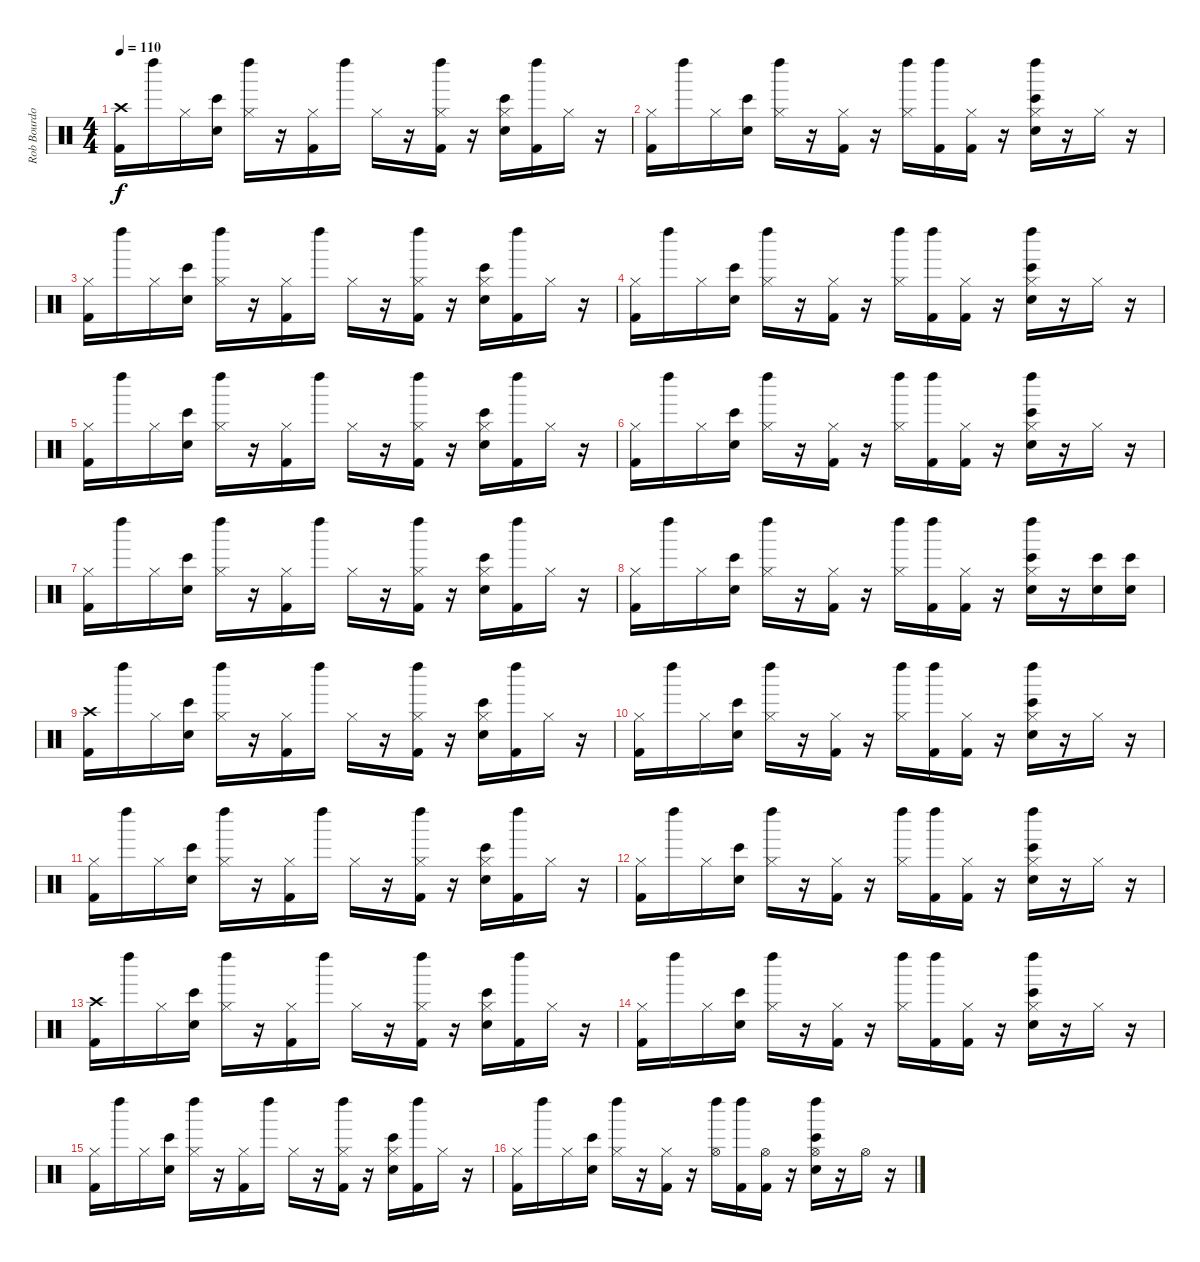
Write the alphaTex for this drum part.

\track ("Rob Bourdon (Drums)" "Rob Bourdo") {instrument percussion}
\staff {score}
\articulation defaults
\ts (4 4)
\tempo 110
\clef neutral
\ks c
("Crash high (hit)" "Kick (hit) 2").16{dy f} "Left Maraca (hit)".16 "Hi-Hat (closed)".16 ("Electric Snare (hit)" "Bongo High (hit)").16 ("Hi-Hat (closed)" "Left Maraca (hit)").16 r.16 ("Hi-Hat (closed)" "Kick (hit) 2").16 "Left Maraca (hit)".16 "Hi-Hat (closed)".16 r.16 ("Hi-Hat (closed)" "Left Maraca (hit)" "Kick (hit) 2").16 r.16 ("Hi-Hat (closed)" "Electric Snare (hit)" "Bongo High (hit)").16 ("Left Maraca (hit)" "Kick (hit) 2").16 "Hi-Hat (closed)".16 r.16 |
("Hi-Hat (closed)" "Kick (hit) 2").16 "Left Maraca (hit)".16 "Hi-Hat (closed)".16 ("Electric Snare (hit)" "Bongo High (hit)").16 ("Hi-Hat (closed)" "Left Maraca (hit)").16 r.16 ("Hi-Hat (closed)" "Kick (hit) 2").16 r.16 ("Hi-Hat (closed)" "Left Maraca (hit)").16 ("Left Maraca (hit)" "Kick (hit) 2").16 ("Hi-Hat (closed)" "Kick (hit) 2").16 r.16 ("Hi-Hat (closed)" "Left Maraca (hit)" "Electric Snare (hit)" "Bongo High (hit)").16 r.16 "Hi-Hat (closed)".16 r.16 |
("Hi-Hat (closed)" "Kick (hit) 2").16 "Left Maraca (hit)".16 "Hi-Hat (closed)".16 ("Electric Snare (hit)" "Bongo High (hit)").16 ("Hi-Hat (closed)" "Left Maraca (hit)").16 r.16 ("Hi-Hat (closed)" "Kick (hit) 2").16 "Left Maraca (hit)".16 "Hi-Hat (closed)".16 r.16 ("Hi-Hat (closed)" "Left Maraca (hit)" "Kick (hit) 2").16 r.16 ("Hi-Hat (closed)" "Electric Snare (hit)" "Bongo High (hit)").16 ("Left Maraca (hit)" "Kick (hit) 2").16 "Hi-Hat (closed)".16 r.16 |
("Hi-Hat (closed)" "Kick (hit) 2").16 "Left Maraca (hit)".16 "Hi-Hat (closed)".16 ("Electric Snare (hit)" "Bongo High (hit)").16 ("Hi-Hat (closed)" "Left Maraca (hit)").16 r.16 ("Hi-Hat (closed)" "Kick (hit) 2").16 r.16 ("Hi-Hat (closed)" "Left Maraca (hit)").16 ("Left Maraca (hit)" "Kick (hit) 2").16 ("Hi-Hat (closed)" "Kick (hit) 2").16 r.16 ("Hi-Hat (closed)" "Left Maraca (hit)" "Electric Snare (hit)" "Bongo High (hit)").16 r.16 "Hi-Hat (closed)".16 r.16 |
("Hi-Hat (closed)" "Kick (hit) 2").16 "Left Maraca (hit)".16 "Hi-Hat (closed)".16 ("Electric Snare (hit)" "Bongo High (hit)").16 ("Hi-Hat (closed)" "Left Maraca (hit)").16 r.16 ("Hi-Hat (closed)" "Kick (hit) 2").16 "Left Maraca (hit)".16 "Hi-Hat (closed)".16 r.16 ("Hi-Hat (closed)" "Left Maraca (hit)" "Kick (hit) 2").16 r.16 ("Hi-Hat (closed)" "Electric Snare (hit)" "Bongo High (hit)").16 ("Left Maraca (hit)" "Kick (hit) 2").16 "Hi-Hat (closed)".16 r.16 |
("Hi-Hat (closed)" "Kick (hit) 2").16 "Left Maraca (hit)".16 "Hi-Hat (closed)".16 ("Electric Snare (hit)" "Bongo High (hit)").16 ("Hi-Hat (closed)" "Left Maraca (hit)").16 r.16 ("Hi-Hat (closed)" "Kick (hit) 2").16 r.16 ("Hi-Hat (closed)" "Left Maraca (hit)").16 ("Left Maraca (hit)" "Kick (hit) 2").16 ("Hi-Hat (closed)" "Kick (hit) 2").16 r.16 ("Hi-Hat (closed)" "Left Maraca (hit)" "Electric Snare (hit)" "Bongo High (hit)").16 r.16 "Hi-Hat (closed)".16 r.16 |
("Hi-Hat (closed)" "Kick (hit) 2").16 "Left Maraca (hit)".16 "Hi-Hat (closed)".16 ("Electric Snare (hit)" "Bongo High (hit)").16 ("Hi-Hat (closed)" "Left Maraca (hit)").16 r.16 ("Hi-Hat (closed)" "Kick (hit) 2").16 "Left Maraca (hit)".16 "Hi-Hat (closed)".16 r.16 ("Hi-Hat (closed)" "Left Maraca (hit)" "Kick (hit) 2").16 r.16 ("Hi-Hat (closed)" "Electric Snare (hit)" "Bongo High (hit)").16 ("Left Maraca (hit)" "Kick (hit) 2").16 "Hi-Hat (closed)".16 r.16 |
("Hi-Hat (closed)" "Kick (hit) 2").16 "Left Maraca (hit)".16 "Hi-Hat (closed)".16 ("Electric Snare (hit)" "Bongo High (hit)").16 ("Hi-Hat (closed)" "Left Maraca (hit)").16 r.16 ("Hi-Hat (closed)" "Kick (hit) 2").16 r.16 ("Hi-Hat (closed)" "Left Maraca (hit)").16 ("Left Maraca (hit)" "Kick (hit) 2").16 ("Hi-Hat (closed)" "Kick (hit) 2").16 r.16 ("Hi-Hat (closed)" "Left Maraca (hit)" "Electric Snare (hit)" "Bongo High (hit)").16 r.16 ("Electric Snare (hit)" "Bongo High (hit)").16 ("Electric Snare (hit)" "Bongo High (hit)").16 |
("Crash high (hit)" "Kick (hit) 2").16 "Left Maraca (hit)".16 "Hi-Hat (closed)".16 ("Electric Snare (hit)" "Bongo High (hit)").16 ("Hi-Hat (closed)" "Left Maraca (hit)").16 r.16 ("Hi-Hat (closed)" "Kick (hit) 2").16 "Left Maraca (hit)".16 "Hi-Hat (closed)".16 r.16 ("Hi-Hat (closed)" "Left Maraca (hit)" "Kick (hit) 2").16 r.16 ("Hi-Hat (closed)" "Electric Snare (hit)" "Bongo High (hit)").16 ("Left Maraca (hit)" "Kick (hit) 2").16 "Hi-Hat (closed)".16 r.16 |
("Hi-Hat (closed)" "Kick (hit) 2").16 "Left Maraca (hit)".16 "Hi-Hat (closed)".16 ("Electric Snare (hit)" "Bongo High (hit)").16 ("Hi-Hat (closed)" "Left Maraca (hit)").16 r.16 ("Hi-Hat (closed)" "Kick (hit) 2").16 r.16 ("Hi-Hat (closed)" "Left Maraca (hit)").16 ("Left Maraca (hit)" "Kick (hit) 2").16 ("Hi-Hat (closed)" "Kick (hit) 2").16 r.16 ("Hi-Hat (closed)" "Left Maraca (hit)" "Electric Snare (hit)" "Bongo High (hit)").16 r.16 "Hi-Hat (closed)".16 r.16 |
("Hi-Hat (closed)" "Kick (hit) 2").16 "Left Maraca (hit)".16 "Hi-Hat (closed)".16 ("Electric Snare (hit)" "Bongo High (hit)").16 ("Hi-Hat (closed)" "Left Maraca (hit)").16 r.16 ("Hi-Hat (closed)" "Kick (hit) 2").16 "Left Maraca (hit)".16 "Hi-Hat (closed)".16 r.16 ("Hi-Hat (closed)" "Left Maraca (hit)" "Kick (hit) 2").16 r.16 ("Hi-Hat (closed)" "Electric Snare (hit)" "Bongo High (hit)").16 ("Left Maraca (hit)" "Kick (hit) 2").16 "Hi-Hat (closed)".16 r.16 |
("Hi-Hat (closed)" "Kick (hit) 2").16 "Left Maraca (hit)".16 "Hi-Hat (closed)".16 ("Electric Snare (hit)" "Bongo High (hit)").16 ("Hi-Hat (closed)" "Left Maraca (hit)").16 r.16 ("Hi-Hat (closed)" "Kick (hit) 2").16 r.16 ("Hi-Hat (closed)" "Left Maraca (hit)").16 ("Left Maraca (hit)" "Kick (hit) 2").16 ("Hi-Hat (closed)" "Kick (hit) 2").16 r.16 ("Hi-Hat (closed)" "Left Maraca (hit)" "Electric Snare (hit)" "Bongo High (hit)").16 r.16 "Hi-Hat (closed)".16 r.16 |
("Crash high (hit)" "Kick (hit) 2").16 "Left Maraca (hit)".16 "Hi-Hat (closed)".16 ("Electric Snare (hit)" "Bongo High (hit)").16 ("Hi-Hat (closed)" "Left Maraca (hit)").16 r.16 ("Hi-Hat (closed)" "Kick (hit) 2").16 "Left Maraca (hit)".16 "Hi-Hat (closed)".16 r.16 ("Hi-Hat (closed)" "Left Maraca (hit)" "Kick (hit) 2").16 r.16 ("Hi-Hat (closed)" "Electric Snare (hit)" "Bongo High (hit)").16 ("Left Maraca (hit)" "Kick (hit) 2").16 "Hi-Hat (closed)".16 r.16 |
("Hi-Hat (closed)" "Kick (hit) 2").16 "Left Maraca (hit)".16 "Hi-Hat (closed)".16 ("Electric Snare (hit)" "Bongo High (hit)").16 ("Hi-Hat (closed)" "Left Maraca (hit)").16 r.16 ("Hi-Hat (closed)" "Kick (hit) 2").16 r.16 ("Hi-Hat (closed)" "Left Maraca (hit)").16 ("Left Maraca (hit)" "Kick (hit) 2").16 ("Hi-Hat (closed)" "Kick (hit) 2").16 r.16 ("Hi-Hat (closed)" "Left Maraca (hit)" "Electric Snare (hit)" "Bongo High (hit)").16 r.16 "Hi-Hat (closed)".16 r.16 |
("Hi-Hat (closed)" "Kick (hit) 2").16 "Left Maraca (hit)".16 "Hi-Hat (closed)".16 ("Electric Snare (hit)" "Bongo High (hit)").16 ("Hi-Hat (closed)" "Left Maraca (hit)").16 r.16 ("Hi-Hat (closed)" "Kick (hit) 2").16 "Left Maraca (hit)".16 "Hi-Hat (closed)".16 r.16 ("Hi-Hat (closed)" "Left Maraca (hit)" "Kick (hit) 2").16 r.16 ("Hi-Hat (closed)" "Electric Snare (hit)" "Bongo High (hit)").16 ("Left Maraca (hit)" "Kick (hit) 2").16 "Hi-Hat (closed)".16 r.16 |
("Hi-Hat (closed)" "Kick (hit) 2").16 "Left Maraca (hit)".16 "Hi-Hat (closed)".16 ("Electric Snare (hit)" "Bongo High (hit)").16 ("Hi-Hat (closed)" "Left Maraca (hit)").16 r.16 ("Hi-Hat (closed)" "Kick (hit) 2").16 r.16 ("Hi-Hat (open)" "Left Maraca (hit)").16 ("Left Maraca (hit)" "Kick (hit) 2").16 ("Hi-Hat (open)" "Kick (hit) 2").16 r.16 ("Hi-Hat (open)" "Left Maraca (hit)" "Electric Snare (hit)" "Bongo High (hit)").16 r.16 "Hi-Hat (open)".16 r.16
